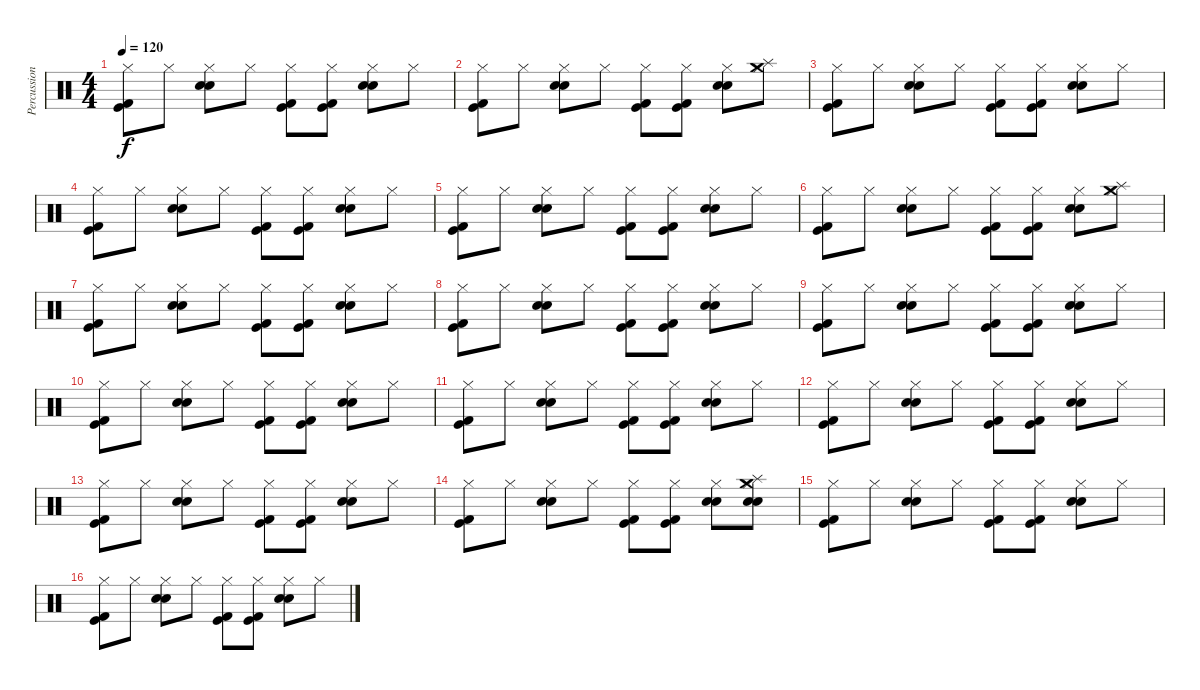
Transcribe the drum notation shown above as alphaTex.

\track ("Percussions" "Percussion") {instrument percussion}
\staff {score}
\articulation defaults
\ts (4 4)
\tempo 120
\clef neutral
\ks c
("Hi-Hat (closed)" "Kick (hit)" "Kick (hit) 2").8{dy f} "Hi-Hat (closed)".8 ("Hi-Hat (closed)" "Snare (hit) 2" "Electric Snare (hit)").8 "Hi-Hat (closed)".8 ("Hi-Hat (closed)" "Kick (hit)" "Kick (hit) 2").8 ("Hi-Hat (closed)" "Kick (hit)" "Kick (hit) 2").8 ("Hi-Hat (closed)" "Snare (hit) 2" "Electric Snare (hit)").8 "Hi-Hat (closed)".8 |
("Hi-Hat (closed)" "Kick (hit)" "Kick (hit) 2").8 "Hi-Hat (closed)".8 ("Hi-Hat (closed)" "Snare (hit) 2" "Electric Snare (hit)").8 "Hi-Hat (closed)".8 ("Hi-Hat (closed)" "Kick (hit)" "Kick (hit) 2").8 ("Hi-Hat (closed)" "Kick (hit)" "Kick (hit) 2").8 ("Hi-Hat (closed)" "Snare (hit) 2" "Electric Snare (hit)").8 ("Hi-Hat (closed)" "Splash (hit)" "Crash medium (hit)").8 |
("Hi-Hat (closed)" "Kick (hit)" "Kick (hit) 2").8 "Hi-Hat (closed)".8 ("Hi-Hat (closed)" "Snare (hit) 2" "Electric Snare (hit)").8 "Hi-Hat (closed)".8 ("Hi-Hat (closed)" "Kick (hit)" "Kick (hit) 2").8 ("Hi-Hat (closed)" "Kick (hit)" "Kick (hit) 2").8 ("Hi-Hat (closed)" "Snare (hit) 2" "Electric Snare (hit)").8 "Hi-Hat (closed)".8 |
("Hi-Hat (closed)" "Kick (hit)" "Kick (hit) 2").8 "Hi-Hat (closed)".8 ("Hi-Hat (closed)" "Snare (hit) 2" "Electric Snare (hit)").8 "Hi-Hat (closed)".8 ("Hi-Hat (closed)" "Kick (hit)" "Kick (hit) 2").8 ("Hi-Hat (closed)" "Kick (hit)" "Kick (hit) 2").8 ("Hi-Hat (closed)" "Snare (hit) 2" "Electric Snare (hit)").8 "Hi-Hat (closed)".8 |
("Hi-Hat (closed)" "Kick (hit)" "Kick (hit) 2").8 "Hi-Hat (closed)".8 ("Hi-Hat (closed)" "Snare (hit) 2" "Electric Snare (hit)").8 "Hi-Hat (closed)".8 ("Hi-Hat (closed)" "Kick (hit)" "Kick (hit) 2").8 ("Hi-Hat (closed)" "Kick (hit)" "Kick (hit) 2").8 ("Hi-Hat (closed)" "Snare (hit) 2" "Electric Snare (hit)").8 "Hi-Hat (closed)".8 |
("Hi-Hat (closed)" "Kick (hit)" "Kick (hit) 2").8 "Hi-Hat (closed)".8 ("Hi-Hat (closed)" "Snare (hit) 2" "Electric Snare (hit)").8 "Hi-Hat (closed)".8 ("Hi-Hat (closed)" "Kick (hit)" "Kick (hit) 2").8 ("Hi-Hat (closed)" "Kick (hit)" "Kick (hit) 2").8 ("Hi-Hat (closed)" "Snare (hit) 2" "Electric Snare (hit)").8 ("Hi-Hat (closed)" "Splash (hit)" "Crash medium (hit)").8 |
("Hi-Hat (closed)" "Kick (hit)" "Kick (hit) 2").8 "Hi-Hat (closed)".8 ("Hi-Hat (closed)" "Snare (hit) 2" "Electric Snare (hit)").8 "Hi-Hat (closed)".8 ("Hi-Hat (closed)" "Kick (hit)" "Kick (hit) 2").8 ("Hi-Hat (closed)" "Kick (hit)" "Kick (hit) 2").8 ("Hi-Hat (closed)" "Snare (hit) 2" "Electric Snare (hit)").8 "Hi-Hat (closed)".8 |
("Hi-Hat (closed)" "Kick (hit)" "Kick (hit) 2").8 "Hi-Hat (closed)".8 ("Hi-Hat (closed)" "Snare (hit) 2" "Electric Snare (hit)").8 "Hi-Hat (closed)".8 ("Hi-Hat (closed)" "Kick (hit)" "Kick (hit) 2").8 ("Hi-Hat (closed)" "Kick (hit)" "Kick (hit) 2").8 ("Hi-Hat (closed)" "Snare (hit) 2" "Electric Snare (hit)").8 "Hi-Hat (closed)".8 |
("Hi-Hat (closed)" "Kick (hit)" "Kick (hit) 2").8 "Hi-Hat (closed)".8 ("Hi-Hat (closed)" "Snare (hit) 2" "Electric Snare (hit)").8 "Hi-Hat (closed)".8 ("Hi-Hat (closed)" "Kick (hit)" "Kick (hit) 2").8 ("Hi-Hat (closed)" "Kick (hit)" "Kick (hit) 2").8 ("Hi-Hat (closed)" "Snare (hit) 2" "Electric Snare (hit)").8 "Hi-Hat (closed)".8 |
("Hi-Hat (closed)" "Kick (hit)" "Kick (hit) 2").8 "Hi-Hat (closed)".8 ("Hi-Hat (closed)" "Snare (hit) 2" "Electric Snare (hit)").8 "Hi-Hat (closed)".8 ("Hi-Hat (closed)" "Kick (hit)" "Kick (hit) 2").8 ("Hi-Hat (closed)" "Kick (hit)" "Kick (hit) 2").8 ("Hi-Hat (closed)" "Snare (hit) 2" "Electric Snare (hit)").8 "Hi-Hat (closed)".8 |
("Hi-Hat (closed)" "Kick (hit)" "Kick (hit) 2").8 "Hi-Hat (closed)".8 ("Hi-Hat (closed)" "Snare (hit) 2" "Electric Snare (hit)").8 "Hi-Hat (closed)".8 ("Hi-Hat (closed)" "Kick (hit)" "Kick (hit) 2").8 ("Hi-Hat (closed)" "Kick (hit)" "Kick (hit) 2").8 ("Hi-Hat (closed)" "Snare (hit) 2" "Electric Snare (hit)").8 "Hi-Hat (closed)".8 |
("Hi-Hat (closed)" "Kick (hit)" "Kick (hit) 2").8 "Hi-Hat (closed)".8 ("Hi-Hat (closed)" "Snare (hit) 2" "Electric Snare (hit)").8 "Hi-Hat (closed)".8 ("Hi-Hat (closed)" "Kick (hit)" "Kick (hit) 2").8 ("Hi-Hat (closed)" "Kick (hit)" "Kick (hit) 2").8 ("Hi-Hat (closed)" "Snare (hit) 2" "Electric Snare (hit)").8 "Hi-Hat (closed)".8 |
("Hi-Hat (closed)" "Kick (hit)" "Kick (hit) 2").8 "Hi-Hat (closed)".8 ("Hi-Hat (closed)" "Snare (hit) 2" "Electric Snare (hit)").8 "Hi-Hat (closed)".8 ("Hi-Hat (closed)" "Kick (hit)" "Kick (hit) 2").8 ("Hi-Hat (closed)" "Kick (hit)" "Kick (hit) 2").8 ("Hi-Hat (closed)" "Snare (hit) 2" "Electric Snare (hit)").8 "Hi-Hat (closed)".8 |
("Hi-Hat (closed)" "Kick (hit)" "Kick (hit) 2").8 "Hi-Hat (closed)".8 ("Hi-Hat (closed)" "Snare (hit) 2" "Electric Snare (hit)").8 "Hi-Hat (closed)".8 ("Hi-Hat (closed)" "Kick (hit)" "Kick (hit) 2").8 ("Hi-Hat (closed)" "Kick (hit)" "Kick (hit) 2").8 ("Hi-Hat (closed)" "Snare (hit) 2" "Electric Snare (hit)").8 ("Hi-Hat (closed)" "Splash (hit)" "Crash medium (hit)" "Snare (hit) 2" "Electric Snare (hit)").8 |
("Hi-Hat (closed)" "Kick (hit)" "Kick (hit) 2").8 "Hi-Hat (closed)".8 ("Hi-Hat (closed)" "Snare (hit) 2" "Electric Snare (hit)").8 "Hi-Hat (closed)".8 ("Hi-Hat (closed)" "Kick (hit)" "Kick (hit) 2").8 ("Hi-Hat (closed)" "Kick (hit)" "Kick (hit) 2").8 ("Hi-Hat (closed)" "Snare (hit) 2" "Electric Snare (hit)").8 "Hi-Hat (closed)".8 |
("Hi-Hat (closed)" "Kick (hit)" "Kick (hit) 2").8 "Hi-Hat (closed)".8 ("Hi-Hat (closed)" "Snare (hit) 2" "Electric Snare (hit)").8 "Hi-Hat (closed)".8 ("Hi-Hat (closed)" "Kick (hit)" "Kick (hit) 2").8 ("Hi-Hat (closed)" "Kick (hit)" "Kick (hit) 2").8 ("Hi-Hat (closed)" "Snare (hit) 2" "Electric Snare (hit)").8 "Hi-Hat (closed)".8
